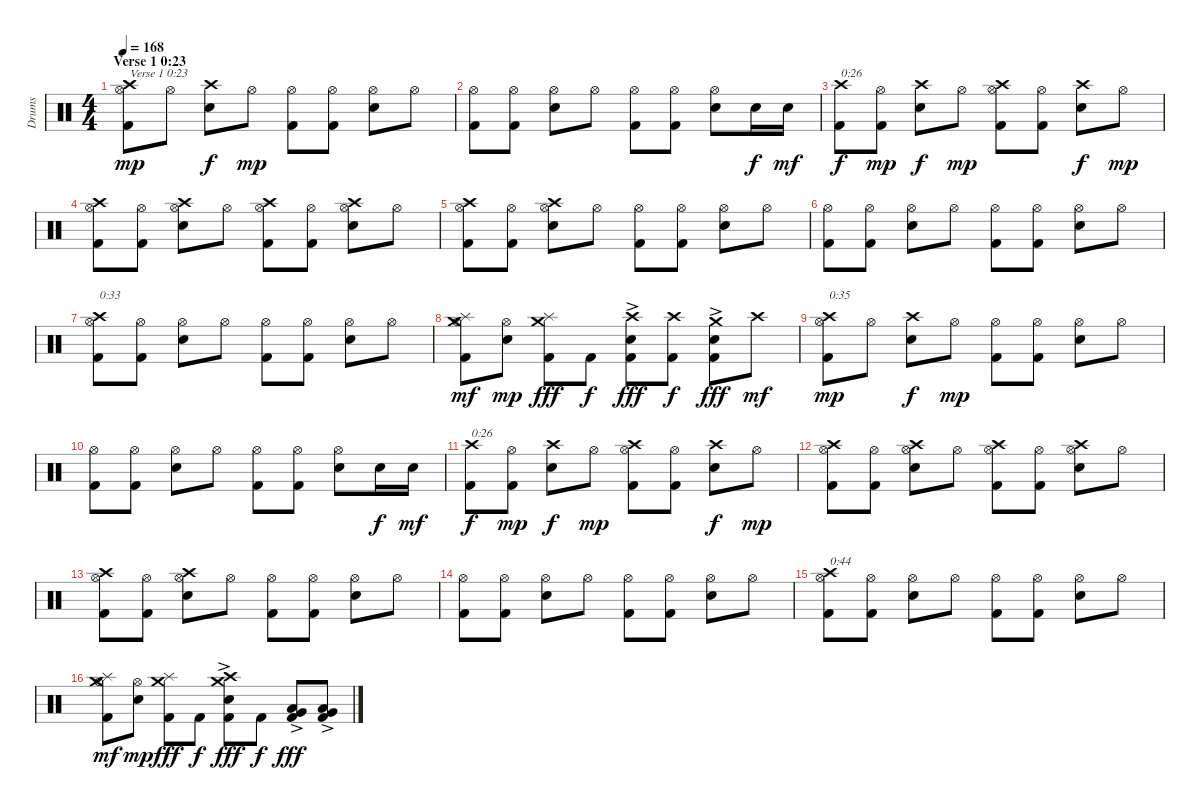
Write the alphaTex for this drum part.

\track ("Drums" "Drums") {instrument percussion}
\staff {score}
\articulation defaults
\ts (4 4)
\section ("" "Verse 1 0:23")
\tempo 168
\clef neutral
\ks c
("Kick (hit) 2" "Hi-Hat (open)" "Crash high (hit)").8{txt "Verse 1 0:23" dy mp} "Hi-Hat (open)".8 ("Electric Snare (hit)" "Crash high (hit)").8{dy f} "Hi-Hat (open)".8{dy mp} ("Kick (hit) 2" "Hi-Hat (open)").8 ("Kick (hit) 2" "Hi-Hat (open)").8 ("Electric Snare (hit)" "Hi-Hat (open)").8 "Hi-Hat (open)".8 |
("Kick (hit) 2" "Hi-Hat (open)").8 ("Kick (hit) 2" "Hi-Hat (open)").8 ("Electric Snare (hit)" "Hi-Hat (open)").8 "Hi-Hat (open)".8 ("Kick (hit) 2" "Hi-Hat (open)").8 ("Kick (hit) 2" "Hi-Hat (open)").8 ("Electric Snare (hit)" "Hi-Hat (open)").8 "Electric Snare (hit)".16{dy f} "Electric Snare (hit)".16{dy mf} |
("Kick (hit) 2" "Crash high (hit)").8{txt "0:26" dy f} ("Kick (hit) 2" "Hi-Hat (open)").8{dy mp} ("Electric Snare (hit)" "Crash high (hit)").8{dy f} "Hi-Hat (open)".8{dy mp} ("Kick (hit) 2" "Hi-Hat (open)" "Crash high (hit)").8 ("Kick (hit) 2" "Hi-Hat (open)").8 ("Electric Snare (hit)" "Crash high (hit)").8{dy f} "Hi-Hat (open)".8{dy mp} |
("Kick (hit) 2" "Hi-Hat (open)" "Crash high (hit)").8 ("Kick (hit) 2" "Hi-Hat (open)").8 ("Electric Snare (hit)" "Hi-Hat (open)" "Crash high (hit)").8 "Hi-Hat (open)".8 ("Kick (hit) 2" "Hi-Hat (open)" "Crash high (hit)").8 ("Kick (hit) 2" "Hi-Hat (open)").8 ("Electric Snare (hit)" "Hi-Hat (open)" "Crash high (hit)").8 "Hi-Hat (open)".8 |
("Kick (hit) 2" "Hi-Hat (open)" "Crash high (hit)").8 ("Kick (hit) 2" "Hi-Hat (open)").8 ("Electric Snare (hit)" "Hi-Hat (open)" "Crash high (hit)").8 "Hi-Hat (open)".8 ("Kick (hit) 2" "Hi-Hat (open)").8 ("Kick (hit) 2" "Hi-Hat (open)").8 ("Electric Snare (hit)" "Hi-Hat (open)").8 "Hi-Hat (open)".8 |
("Kick (hit) 2" "Hi-Hat (open)").8 ("Kick (hit) 2" "Hi-Hat (open)").8 ("Electric Snare (hit)" "Hi-Hat (open)").8 "Hi-Hat (open)".8 ("Kick (hit) 2" "Hi-Hat (open)").8 ("Kick (hit) 2" "Hi-Hat (open)").8 ("Electric Snare (hit)" "Hi-Hat (open)").8 "Hi-Hat (open)".8 |
("Kick (hit) 2" "Hi-Hat (open)" "Crash high (hit)").8{txt "0:33"} ("Kick (hit) 2" "Hi-Hat (open)").8 ("Electric Snare (hit)" "Hi-Hat (open)").8 "Hi-Hat (open)".8 ("Kick (hit) 2" "Hi-Hat (open)").8 ("Kick (hit) 2" "Hi-Hat (open)").8 ("Electric Snare (hit)" "Hi-Hat (open)").8 "Hi-Hat (open)".8 |
("Kick (hit) 2" "Hi-Hat (open)" "Splash (hit)" "Crash medium (hit)").8{dy mf} ("Electric Snare (hit)" "Hi-Hat (open)").8{dy mp} ("Kick (hit) 2" "Splash (hit)" "Crash medium (hit)").8{dy fff} "Kick (hit) 2".8{dy f} ("Kick (hit) 2" "Electric Snare (hit)"{ac} "Crash high (hit)").8{dy fff} ("Kick (hit) 2" "Crash high (hit)").8{dy f} ("Kick (hit) 2" "Electric Snare (hit)"{ac} "Crash medium (hit)").8{dy fff} "Crash high (hit)".8{dy mf} |
("Kick (hit) 2" "Hi-Hat (open)" "Crash high (hit)").8{txt "0:35" dy mp} "Hi-Hat (open)".8 ("Electric Snare (hit)" "Crash high (hit)").8{dy f} "Hi-Hat (open)".8{dy mp} ("Kick (hit) 2" "Hi-Hat (open)").8 ("Kick (hit) 2" "Hi-Hat (open)").8 ("Electric Snare (hit)" "Hi-Hat (open)").8 "Hi-Hat (open)".8 |
("Kick (hit) 2" "Hi-Hat (open)").8 ("Kick (hit) 2" "Hi-Hat (open)").8 ("Electric Snare (hit)" "Hi-Hat (open)").8 "Hi-Hat (open)".8 ("Kick (hit) 2" "Hi-Hat (open)").8 ("Kick (hit) 2" "Hi-Hat (open)").8 ("Electric Snare (hit)" "Hi-Hat (open)").8 "Electric Snare (hit)".16{dy f} "Electric Snare (hit)".16{dy mf} |
("Kick (hit) 2" "Crash high (hit)").8{txt "0:26" dy f} ("Kick (hit) 2" "Hi-Hat (open)").8{dy mp} ("Electric Snare (hit)" "Crash high (hit)").8{dy f} "Hi-Hat (open)".8{dy mp} ("Kick (hit) 2" "Hi-Hat (open)" "Crash high (hit)").8 ("Kick (hit) 2" "Hi-Hat (open)").8 ("Electric Snare (hit)" "Crash high (hit)").8{dy f} "Hi-Hat (open)".8{dy mp} |
("Kick (hit) 2" "Hi-Hat (open)" "Crash high (hit)").8 ("Kick (hit) 2" "Hi-Hat (open)").8 ("Electric Snare (hit)" "Hi-Hat (open)" "Crash high (hit)").8 "Hi-Hat (open)".8 ("Kick (hit) 2" "Hi-Hat (open)" "Crash high (hit)").8 ("Kick (hit) 2" "Hi-Hat (open)").8 ("Electric Snare (hit)" "Hi-Hat (open)" "Crash high (hit)").8 "Hi-Hat (open)".8 |
("Kick (hit) 2" "Hi-Hat (open)" "Crash high (hit)").8 ("Kick (hit) 2" "Hi-Hat (open)").8 ("Electric Snare (hit)" "Hi-Hat (open)" "Crash high (hit)").8 "Hi-Hat (open)".8 ("Kick (hit) 2" "Hi-Hat (open)").8 ("Kick (hit) 2" "Hi-Hat (open)").8 ("Electric Snare (hit)" "Hi-Hat (open)").8 "Hi-Hat (open)".8 |
("Kick (hit) 2" "Hi-Hat (open)").8 ("Kick (hit) 2" "Hi-Hat (open)").8 ("Electric Snare (hit)" "Hi-Hat (open)").8 "Hi-Hat (open)".8 ("Kick (hit) 2" "Hi-Hat (open)").8 ("Kick (hit) 2" "Hi-Hat (open)").8 ("Electric Snare (hit)" "Hi-Hat (open)").8 "Hi-Hat (open)".8 |
("Kick (hit) 2" "Hi-Hat (open)" "Crash high (hit)").8{txt "0:44"} ("Kick (hit) 2" "Hi-Hat (open)").8 ("Electric Snare (hit)" "Hi-Hat (open)").8 "Hi-Hat (open)".8 ("Kick (hit) 2" "Hi-Hat (open)").8 ("Kick (hit) 2" "Hi-Hat (open)").8 ("Electric Snare (hit)" "Hi-Hat (open)").8 "Hi-Hat (open)".8 |
("Kick (hit) 2" "Hi-Hat (open)" "Splash (hit)" "Crash medium (hit)").8{dy mf} ("Electric Snare (hit)" "Hi-Hat (open)").8{dy mp} ("Kick (hit) 2" "Splash (hit)" "Crash medium (hit)").8{dy fff} "Kick (hit) 2".8{dy f} ("Kick (hit) 2" "Electric Snare (hit)"{ac} "Crash medium (hit)" "Crash high (hit)").8{dy fff} "Kick (hit) 2".8{dy f} ("Kick (hit) 2" "Low Tom (hit)"{ac} "Very Low Tom (hit)"{ac}).8{dy fff} ("Kick (hit) 2" "Low Tom (hit)"{ac} "Very Low Tom (hit)"{ac}).8
